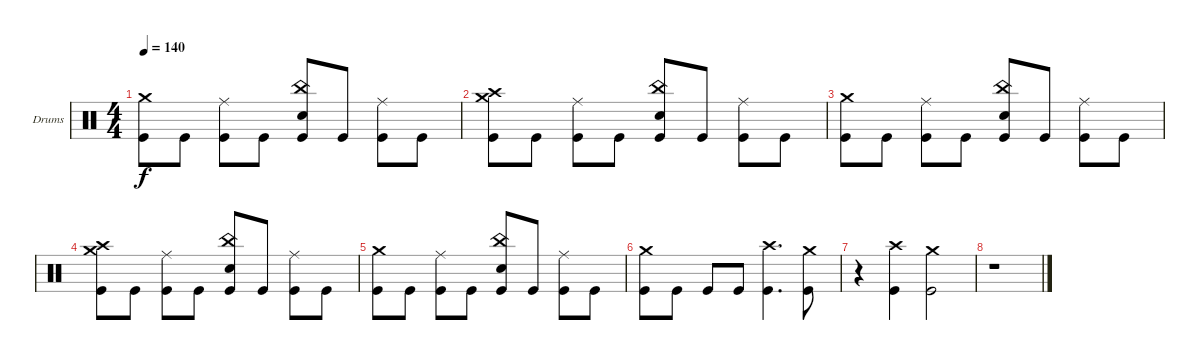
\bracketExtendMode groupsimilarinstruments
\firstSystemTrackNameOrientation horizontal
\otherSystemsTrackNameOrientation horizontal
\track ("Drumkit" "Drums") {instrument percussion}
\staff {score}
\articulation defaults
\ts (4 4)
\tempo 140
\clef neutral
\ks c
("Crash medium (hit)" "Kick (hit)").8{dy f} "Kick (hit)".8 ("Ride (middle)" "Kick (hit)").8 "Kick (hit)".8 ("China (hit)" "Snare (hit) 2" "Kick (hit)").8 "Kick (hit)".8 ("Ride (middle)" "Kick (hit)").8 "Kick (hit)".8 |
("Crash medium (hit)" "Crash high (hit)" "Kick (hit)").8 "Kick (hit)".8 ("Ride (middle)" "Kick (hit)").8 "Kick (hit)".8 ("China (hit)" "Snare (hit) 2" "Kick (hit)").8 "Kick (hit)".8 ("Ride (middle)" "Kick (hit)").8 "Kick (hit)".8 |
("Crash medium (hit)" "Kick (hit)").8 "Kick (hit)".8 ("Ride (middle)" "Kick (hit)").8 "Kick (hit)".8 ("China (hit)" "Snare (hit) 2" "Kick (hit)").8 "Kick (hit)".8 ("Ride (middle)" "Kick (hit)").8 "Kick (hit)".8 |
("Crash medium (hit)" "Crash high (hit)" "Kick (hit)").8 "Kick (hit)".8 ("Ride (middle)" "Kick (hit)").8 "Kick (hit)".8 ("China (hit)" "Snare (hit) 2" "Kick (hit)").8 "Kick (hit)".8 ("Ride (middle)" "Kick (hit)").8 "Kick (hit)".8 |
("Crash medium (hit)" "Kick (hit)").8 "Kick (hit)".8 ("Ride (middle)" "Kick (hit)").8 "Kick (hit)".8 ("China (hit)" "Snare (hit) 2" "Kick (hit)").8 "Kick (hit)".8 ("Ride (middle)" "Kick (hit)").8 "Kick (hit)".8 |
("Crash medium (hit)" "Kick (hit)").8 "Kick (hit)".8 "Kick (hit)".8 "Kick (hit)".8 ("Crash high (hit)" "Kick (hit)").4{d} ("Crash medium (hit)" "Kick (hit)").8 |
r.4 ("Crash high (hit)" "Kick (hit)").4 ("Crash medium (hit)" "Kick (hit)").2 |
r.1
